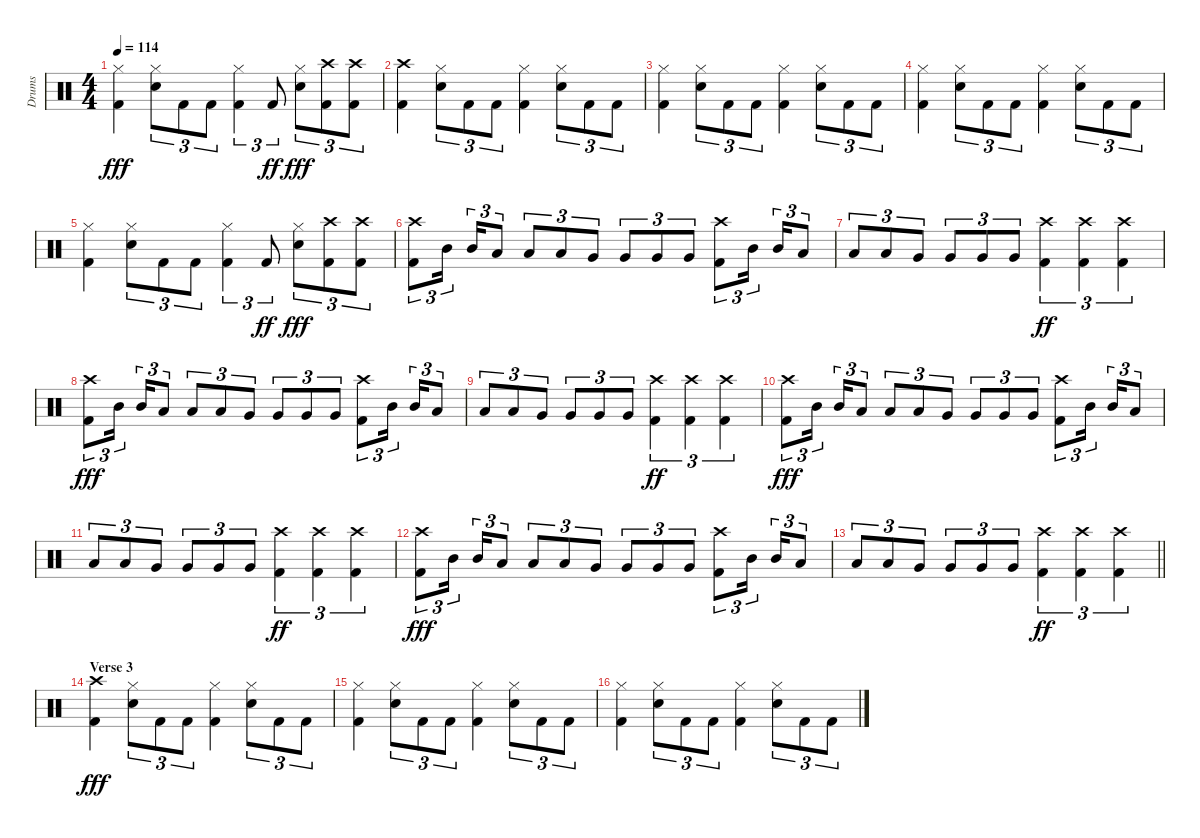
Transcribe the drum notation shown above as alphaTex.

\track ("Drums" "Drums") {instrument percussion}
\staff {score}
\articulation defaults
\ts (4 4)
\tempo 114
\clef neutral
\ks c
("Hi-Hat (closed)" "Kick (hit) 2").4{dy fff} ("Hi-Hat (closed)" "Snare (hit) 2").8{tu (3 2)} "Kick (hit) 2".8{tu (3 2)} "Kick (hit) 2".8{tu (3 2)} ("Hi-Hat (closed)" "Kick (hit) 2").4{tu (3 2)} "Kick (hit) 2".8{tu (3 2) dy ff} ("Hi-Hat (closed)" "Snare (hit) 2").8{tu (3 2) dy fff} ("Crash high (hit)" "Kick (hit) 2").8{tu (3 2)} ("Crash high (hit)" "Kick (hit) 2").8{tu (3 2)} |
("Crash high (hit)" "Kick (hit) 2").4 ("Hi-Hat (closed)" "Snare (hit) 2").8{tu (3 2)} "Kick (hit) 2".8{tu (3 2)} "Kick (hit) 2".8{tu (3 2)} ("Hi-Hat (closed)" "Kick (hit) 2").4 ("Hi-Hat (closed)" "Snare (hit) 2").8{tu (3 2)} "Kick (hit) 2".8{tu (3 2)} "Kick (hit) 2".8{tu (3 2)} |
("Hi-Hat (closed)" "Kick (hit) 2").4 ("Hi-Hat (closed)" "Snare (hit) 2").8{tu (3 2)} "Kick (hit) 2".8{tu (3 2)} "Kick (hit) 2".8{tu (3 2)} ("Hi-Hat (closed)" "Kick (hit) 2").4 ("Hi-Hat (closed)" "Snare (hit) 2").8{tu (3 2)} "Kick (hit) 2".8{tu (3 2)} "Kick (hit) 2".8{tu (3 2)} |
("Hi-Hat (closed)" "Kick (hit) 2").4 ("Hi-Hat (closed)" "Snare (hit) 2").8{tu (3 2)} "Kick (hit) 2".8{tu (3 2)} "Kick (hit) 2".8{tu (3 2)} ("Hi-Hat (closed)" "Kick (hit) 2").4 ("Hi-Hat (closed)" "Snare (hit) 2").8{tu (3 2)} "Kick (hit) 2".8{tu (3 2)} "Kick (hit) 2".8{tu (3 2)} |
("Hi-Hat (closed)" "Kick (hit) 2").4 ("Hi-Hat (closed)" "Snare (hit) 2").8{tu (3 2)} "Kick (hit) 2".8{tu (3 2)} "Kick (hit) 2".8{tu (3 2)} ("Hi-Hat (closed)" "Kick (hit) 2").4{tu (3 2)} "Kick (hit) 2".8{tu (3 2) dy ff} ("Hi-Hat (closed)" "Snare (hit) 2").8{tu (3 2) dy fff} ("Crash high (hit)" "Kick (hit) 2").8{tu (3 2)} ("Crash high (hit)" "Kick (hit) 2").8{tu (3 2)} |
("Crash high (hit)" "Kick (hit) 2").8{tu (3 2)} "Mid Tom (hit)".16{tu (3 2) beam splitsecondary} "Mid Tom (hit)".16{tu (3 2)} "Low Tom (hit)".8{tu (3 2)} "Low Tom (hit)".8{tu (3 2)} "Low Tom (hit)".8{tu (3 2)} "Very Low Tom (hit)".8{tu (3 2)} "Very Low Tom (hit)".8{tu (3 2)} "Very Low Tom (hit)".8{tu (3 2)} "Very Low Tom (hit)".8{tu (3 2)} ("Crash high (hit)" "Kick (hit) 2").8{tu (3 2)} "Mid Tom (hit)".16{tu (3 2) beam splitsecondary} "Mid Tom (hit)".16{tu (3 2)} "Low Tom (hit)".8{tu (3 2)} |
"Low Tom (hit)".8{tu (3 2)} "Low Tom (hit)".8{tu (3 2)} "Very Low Tom (hit)".8{tu (3 2)} "Very Low Tom (hit)".8{tu (3 2)} "Very Low Tom (hit)".8{tu (3 2)} "Very Low Tom (hit)".8{tu (3 2)} ("Crash high (hit)" "Kick (hit) 2").4{tu (3 2) dy ff} ("Crash high (hit)" "Kick (hit) 2").4{tu (3 2)} ("Crash high (hit)" "Kick (hit) 2").4{tu (3 2)} |
("Crash high (hit)" "Kick (hit) 2").8{tu (3 2) dy fff} "Mid Tom (hit)".16{tu (3 2) beam splitsecondary} "Mid Tom (hit)".16{tu (3 2)} "Low Tom (hit)".8{tu (3 2)} "Low Tom (hit)".8{tu (3 2)} "Low Tom (hit)".8{tu (3 2)} "Very Low Tom (hit)".8{tu (3 2)} "Very Low Tom (hit)".8{tu (3 2)} "Very Low Tom (hit)".8{tu (3 2)} "Very Low Tom (hit)".8{tu (3 2)} ("Crash high (hit)" "Kick (hit) 2").8{tu (3 2)} "Mid Tom (hit)".16{tu (3 2) beam splitsecondary} "Mid Tom (hit)".16{tu (3 2)} "Low Tom (hit)".8{tu (3 2)} |
"Low Tom (hit)".8{tu (3 2)} "Low Tom (hit)".8{tu (3 2)} "Very Low Tom (hit)".8{tu (3 2)} "Very Low Tom (hit)".8{tu (3 2)} "Very Low Tom (hit)".8{tu (3 2)} "Very Low Tom (hit)".8{tu (3 2)} ("Crash high (hit)" "Kick (hit) 2").4{tu (3 2) dy ff} ("Crash high (hit)" "Kick (hit) 2").4{tu (3 2)} ("Crash high (hit)" "Kick (hit) 2").4{tu (3 2)} |
("Crash high (hit)" "Kick (hit) 2").8{tu (3 2) dy fff} "Mid Tom (hit)".16{tu (3 2) beam splitsecondary} "Mid Tom (hit)".16{tu (3 2)} "Low Tom (hit)".8{tu (3 2)} "Low Tom (hit)".8{tu (3 2)} "Low Tom (hit)".8{tu (3 2)} "Very Low Tom (hit)".8{tu (3 2)} "Very Low Tom (hit)".8{tu (3 2)} "Very Low Tom (hit)".8{tu (3 2)} "Very Low Tom (hit)".8{tu (3 2)} ("Crash high (hit)" "Kick (hit) 2").8{tu (3 2)} "Mid Tom (hit)".16{tu (3 2) beam splitsecondary} "Mid Tom (hit)".16{tu (3 2)} "Low Tom (hit)".8{tu (3 2)} |
"Low Tom (hit)".8{tu (3 2)} "Low Tom (hit)".8{tu (3 2)} "Very Low Tom (hit)".8{tu (3 2)} "Very Low Tom (hit)".8{tu (3 2)} "Very Low Tom (hit)".8{tu (3 2)} "Very Low Tom (hit)".8{tu (3 2)} ("Crash high (hit)" "Kick (hit) 2").4{tu (3 2) dy ff} ("Crash high (hit)" "Kick (hit) 2").4{tu (3 2)} ("Crash high (hit)" "Kick (hit) 2").4{tu (3 2)} |
("Crash high (hit)" "Kick (hit) 2").8{tu (3 2) dy fff} "Mid Tom (hit)".16{tu (3 2) beam splitsecondary} "Mid Tom (hit)".16{tu (3 2)} "Low Tom (hit)".8{tu (3 2)} "Low Tom (hit)".8{tu (3 2)} "Low Tom (hit)".8{tu (3 2)} "Very Low Tom (hit)".8{tu (3 2)} "Very Low Tom (hit)".8{tu (3 2)} "Very Low Tom (hit)".8{tu (3 2)} "Very Low Tom (hit)".8{tu (3 2)} ("Crash high (hit)" "Kick (hit) 2").8{tu (3 2)} "Mid Tom (hit)".16{tu (3 2) beam splitsecondary} "Mid Tom (hit)".16{tu (3 2)} "Low Tom (hit)".8{tu (3 2)} |
\barLineRight lightlight "Low Tom (hit)".8{tu (3 2)} "Low Tom (hit)".8{tu (3 2)} "Very Low Tom (hit)".8{tu (3 2)} "Very Low Tom (hit)".8{tu (3 2)} "Very Low Tom (hit)".8{tu (3 2)} "Very Low Tom (hit)".8{tu (3 2)}
("Crash high (hit)" "Kick (hit) 2").4{tu (3 2) dy ff} ("Crash high (hit)" "Kick (hit) 2").4{tu (3 2)} ("Crash high (hit)" "Kick (hit) 2").4{tu (3 2)} |
\section ("" "Verse 3")
("Crash high (hit)" "Kick (hit) 2").4{dy fff} ("Hi-Hat (closed)" "Snare (hit) 2").8{tu (3 2)} "Kick (hit) 2".8{tu (3 2)} "Kick (hit) 2".8{tu (3 2)} ("Hi-Hat (closed)" "Kick (hit) 2").4 ("Hi-Hat (closed)" "Snare (hit) 2").8{tu (3 2)} "Kick (hit) 2".8{tu (3 2)} "Kick (hit) 2".8{tu (3 2)} |
("Hi-Hat (closed)" "Kick (hit) 2").4 ("Hi-Hat (closed)" "Snare (hit) 2").8{tu (3 2)} "Kick (hit) 2".8{tu (3 2)} "Kick (hit) 2".8{tu (3 2)} ("Hi-Hat (closed)" "Kick (hit) 2").4 ("Hi-Hat (closed)" "Snare (hit) 2").8{tu (3 2)} "Kick (hit) 2".8{tu (3 2)} "Kick (hit) 2".8{tu (3 2)} |
("Hi-Hat (closed)" "Kick (hit) 2").4 ("Hi-Hat (closed)" "Snare (hit) 2").8{tu (3 2)} "Kick (hit) 2".8{tu (3 2)} "Kick (hit) 2".8{tu (3 2)} ("Hi-Hat (closed)" "Kick (hit) 2").4 ("Hi-Hat (closed)" "Snare (hit) 2").8{tu (3 2)} "Kick (hit) 2".8{tu (3 2)} "Kick (hit) 2".8{tu (3 2)}
